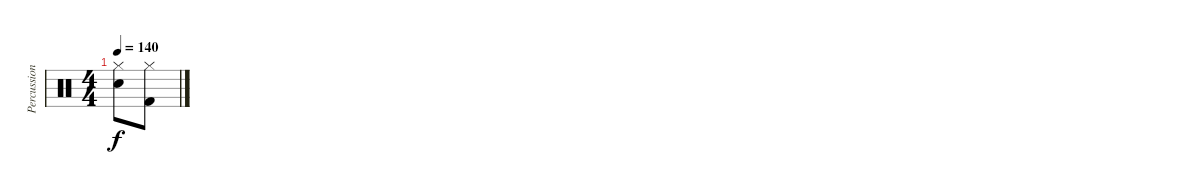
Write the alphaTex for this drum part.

\track ("Percussion" "Percussion") {instrument percussion}
\staff {score}
\articulation defaults
\ts (4 4)
\tempo 140
\clef neutral
\ks c
("Hi-Hat (closed)" "Electric Snare (hit)").8{dy f} ("Hi-Hat (closed)" "Kick (hit) 2").8
